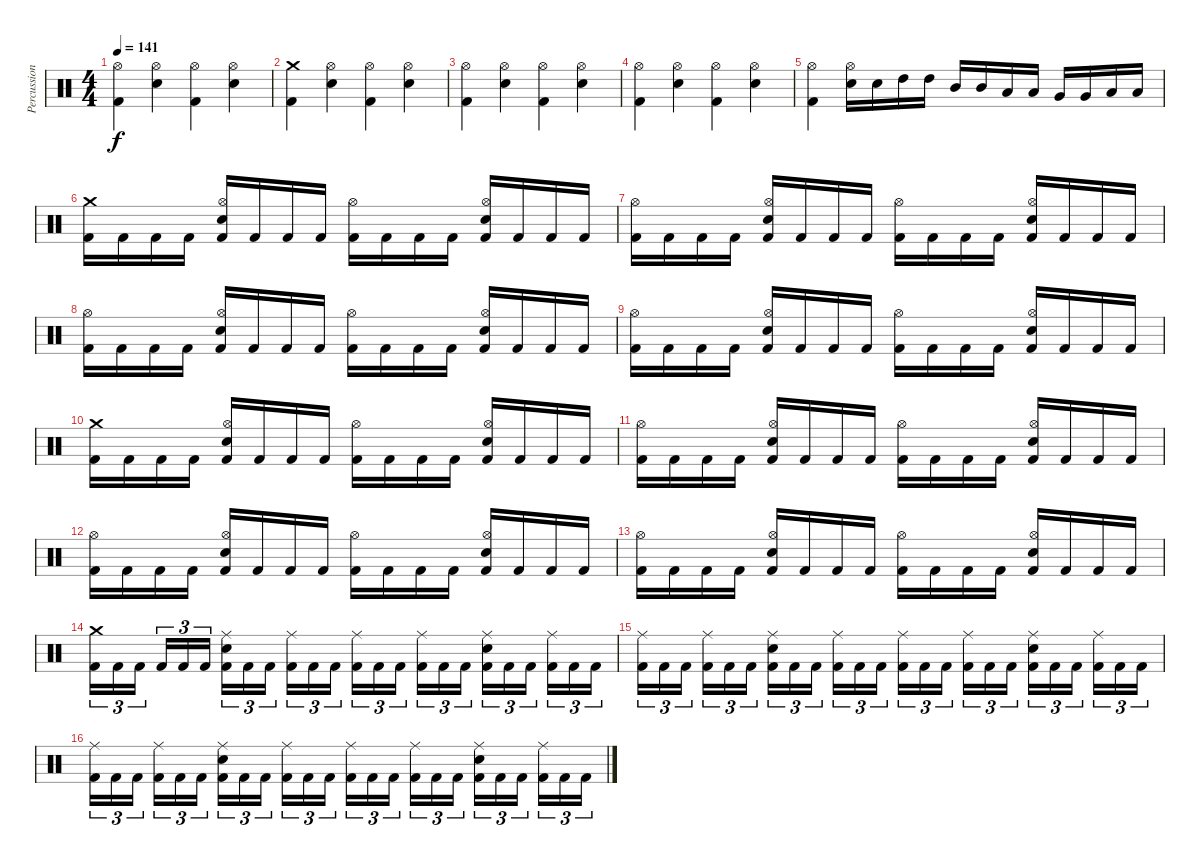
\track ("Percussion" "Percussion") {instrument percussion}
\staff {score}
\articulation defaults
\ts (4 4)
\tempo 141
\clef neutral
\ks c
("Kick (hit) 2" "Hi-Hat (open)").4{dy f} ("Electric Snare (hit)" "Hi-Hat (open)").4 ("Kick (hit) 2" "Hi-Hat (open)").4 ("Electric Snare (hit)" "Hi-Hat (open)").4 |
("Kick (hit) 2" "Crash medium (hit)").4 ("Electric Snare (hit)" "Hi-Hat (open)").4 ("Kick (hit) 2" "Hi-Hat (open)").4 ("Electric Snare (hit)" "Hi-Hat (open)").4 |
("Kick (hit) 2" "Hi-Hat (open)").4 ("Electric Snare (hit)" "Hi-Hat (open)").4 ("Kick (hit) 2" "Hi-Hat (open)").4 ("Electric Snare (hit)" "Hi-Hat (open)").4 |
("Kick (hit) 2" "Hi-Hat (open)").4 ("Electric Snare (hit)" "Hi-Hat (open)").4 ("Kick (hit) 2" "Hi-Hat (open)").4 ("Electric Snare (hit)" "Hi-Hat (open)").4 |
("Kick (hit) 2" "Hi-Hat (open)").4 ("Electric Snare (hit)" "Hi-Hat (open)").16 "Electric Snare (hit)".16 "High Tom (hit)".16 "High Tom (hit)".16 "Mid Tom (hit)".16 "Mid Tom (hit)".16 "Low Tom (hit)".16 "Low Tom (hit)".16 "Very Low Tom (hit)".16 "Very Low Tom (hit)".16 "Low Floor Tom (hit)".16 "Low Floor Tom (hit)".16 |
("Kick (hit) 2" "Crash medium (hit)").16 "Kick (hit) 2".16 "Kick (hit) 2".16 "Kick (hit) 2".16 ("Kick (hit) 2" "Electric Snare (hit)" "Hi-Hat (open)").16 "Kick (hit) 2".16 "Kick (hit) 2".16 "Kick (hit) 2".16 ("Kick (hit) 2" "Hi-Hat (open)").16 "Kick (hit) 2".16 "Kick (hit) 2".16 "Kick (hit) 2".16 ("Kick (hit) 2" "Electric Snare (hit)" "Hi-Hat (open)").16 "Kick (hit) 2".16 "Kick (hit) 2".16 "Kick (hit) 2".16 |
("Kick (hit) 2" "Hi-Hat (open)").16 "Kick (hit) 2".16 "Kick (hit) 2".16 "Kick (hit) 2".16 ("Kick (hit) 2" "Electric Snare (hit)" "Hi-Hat (open)").16 "Kick (hit) 2".16 "Kick (hit) 2".16 "Kick (hit) 2".16 ("Kick (hit) 2" "Hi-Hat (open)").16 "Kick (hit) 2".16 "Kick (hit) 2".16 "Kick (hit) 2".16 ("Kick (hit) 2" "Electric Snare (hit)" "Hi-Hat (open)").16 "Kick (hit) 2".16 "Kick (hit) 2".16 "Kick (hit) 2".16 |
("Kick (hit) 2" "Hi-Hat (open)").16 "Kick (hit) 2".16 "Kick (hit) 2".16 "Kick (hit) 2".16 ("Kick (hit) 2" "Electric Snare (hit)" "Hi-Hat (open)").16 "Kick (hit) 2".16 "Kick (hit) 2".16 "Kick (hit) 2".16 ("Kick (hit) 2" "Hi-Hat (open)").16 "Kick (hit) 2".16 "Kick (hit) 2".16 "Kick (hit) 2".16 ("Kick (hit) 2" "Electric Snare (hit)" "Hi-Hat (open)").16 "Kick (hit) 2".16 "Kick (hit) 2".16 "Kick (hit) 2".16 |
("Kick (hit) 2" "Hi-Hat (open)").16 "Kick (hit) 2".16 "Kick (hit) 2".16 "Kick (hit) 2".16 ("Kick (hit) 2" "Electric Snare (hit)" "Hi-Hat (open)").16 "Kick (hit) 2".16 "Kick (hit) 2".16 "Kick (hit) 2".16 ("Kick (hit) 2" "Hi-Hat (open)").16 "Kick (hit) 2".16 "Kick (hit) 2".16 "Kick (hit) 2".16 ("Kick (hit) 2" "Electric Snare (hit)" "Hi-Hat (open)").16 "Kick (hit) 2".16 "Kick (hit) 2".16 "Kick (hit) 2".16 |
("Kick (hit) 2" "Crash medium (hit)").16 "Kick (hit) 2".16 "Kick (hit) 2".16 "Kick (hit) 2".16 ("Kick (hit) 2" "Electric Snare (hit)" "Hi-Hat (open)").16 "Kick (hit) 2".16 "Kick (hit) 2".16 "Kick (hit) 2".16 ("Kick (hit) 2" "Hi-Hat (open)").16 "Kick (hit) 2".16 "Kick (hit) 2".16 "Kick (hit) 2".16 ("Kick (hit) 2" "Electric Snare (hit)" "Hi-Hat (open)").16 "Kick (hit) 2".16 "Kick (hit) 2".16 "Kick (hit) 2".16 |
("Kick (hit) 2" "Hi-Hat (open)").16 "Kick (hit) 2".16 "Kick (hit) 2".16 "Kick (hit) 2".16 ("Kick (hit) 2" "Electric Snare (hit)" "Hi-Hat (open)").16 "Kick (hit) 2".16 "Kick (hit) 2".16 "Kick (hit) 2".16 ("Kick (hit) 2" "Hi-Hat (open)").16 "Kick (hit) 2".16 "Kick (hit) 2".16 "Kick (hit) 2".16 ("Kick (hit) 2" "Electric Snare (hit)" "Hi-Hat (open)").16 "Kick (hit) 2".16 "Kick (hit) 2".16 "Kick (hit) 2".16 |
("Kick (hit) 2" "Hi-Hat (open)").16 "Kick (hit) 2".16 "Kick (hit) 2".16 "Kick (hit) 2".16 ("Kick (hit) 2" "Electric Snare (hit)" "Hi-Hat (open)").16 "Kick (hit) 2".16 "Kick (hit) 2".16 "Kick (hit) 2".16 ("Kick (hit) 2" "Hi-Hat (open)").16 "Kick (hit) 2".16 "Kick (hit) 2".16 "Kick (hit) 2".16 ("Kick (hit) 2" "Electric Snare (hit)" "Hi-Hat (open)").16 "Kick (hit) 2".16 "Kick (hit) 2".16 "Kick (hit) 2".16 |
("Kick (hit) 2" "Hi-Hat (open)").16 "Kick (hit) 2".16 "Kick (hit) 2".16 "Kick (hit) 2".16 ("Kick (hit) 2" "Electric Snare (hit)" "Hi-Hat (open)").16 "Kick (hit) 2".16 "Kick (hit) 2".16 "Kick (hit) 2".16 ("Kick (hit) 2" "Hi-Hat (open)").16 "Kick (hit) 2".16 "Kick (hit) 2".16 "Kick (hit) 2".16 ("Kick (hit) 2" "Electric Snare (hit)" "Hi-Hat (open)").16 "Kick (hit) 2".16 "Kick (hit) 2".16 "Kick (hit) 2".16 |
("Kick (hit) 2" "Crash medium (hit)").16{tu (3 2)} "Kick (hit) 2".16{tu (3 2)} "Kick (hit) 2".16{tu (3 2)} "Kick (hit) 2".16{tu (3 2)} "Kick (hit) 2".16{tu (3 2)} "Kick (hit) 2".16{tu (3 2)} ("Kick (hit) 2" "Electric Snare (hit)" "Ride (middle)").16{tu (3 2)} "Kick (hit) 2".16{tu (3 2)} "Kick (hit) 2".16{tu (3 2)} ("Kick (hit) 2" "Ride (middle)").16{tu (3 2)} "Kick (hit) 2".16{tu (3 2)} "Kick (hit) 2".16{tu (3 2)} ("Kick (hit) 2" "Ride (middle)").16{tu (3 2)} "Kick (hit) 2".16{tu (3 2)} "Kick (hit) 2".16{tu (3 2)} ("Kick (hit) 2" "Ride (middle)").16{tu (3 2)} "Kick (hit) 2".16{tu (3 2)} "Kick (hit) 2".16{tu (3 2)} ("Kick (hit) 2" "Electric Snare (hit)" "Ride (middle)").16{tu (3 2)} "Kick (hit) 2".16{tu (3 2)} "Kick (hit) 2".16{tu (3 2)} ("Kick (hit) 2" "Ride (middle)").16{tu (3 2)} "Kick (hit) 2".16{tu (3 2)} "Kick (hit) 2".16{tu (3 2)} |
("Kick (hit) 2" "Ride (middle)").16{tu (3 2)} "Kick (hit) 2".16{tu (3 2)} "Kick (hit) 2".16{tu (3 2)} ("Kick (hit) 2" "Ride (middle)").16{tu (3 2)} "Kick (hit) 2".16{tu (3 2)} "Kick (hit) 2".16{tu (3 2)} ("Kick (hit) 2" "Electric Snare (hit)" "Ride (middle)").16{tu (3 2)} "Kick (hit) 2".16{tu (3 2)} "Kick (hit) 2".16{tu (3 2)} ("Kick (hit) 2" "Ride (middle)").16{tu (3 2)} "Kick (hit) 2".16{tu (3 2)} "Kick (hit) 2".16{tu (3 2)} ("Kick (hit) 2" "Ride (middle)").16{tu (3 2)} "Kick (hit) 2".16{tu (3 2)} "Kick (hit) 2".16{tu (3 2)} ("Kick (hit) 2" "Ride (middle)").16{tu (3 2)} "Kick (hit) 2".16{tu (3 2)} "Kick (hit) 2".16{tu (3 2)} ("Kick (hit) 2" "Electric Snare (hit)" "Ride (middle)").16{tu (3 2)} "Kick (hit) 2".16{tu (3 2)} "Kick (hit) 2".16{tu (3 2)} ("Kick (hit) 2" "Ride (middle)").16{tu (3 2)} "Kick (hit) 2".16{tu (3 2)} "Kick (hit) 2".16{tu (3 2)} |
("Kick (hit) 2" "Ride (middle)").16{tu (3 2)} "Kick (hit) 2".16{tu (3 2)} "Kick (hit) 2".16{tu (3 2)} ("Kick (hit) 2" "Ride (middle)").16{tu (3 2)} "Kick (hit) 2".16{tu (3 2)} "Kick (hit) 2".16{tu (3 2)} ("Kick (hit) 2" "Electric Snare (hit)" "Ride (middle)").16{tu (3 2)} "Kick (hit) 2".16{tu (3 2)} "Kick (hit) 2".16{tu (3 2)} ("Kick (hit) 2" "Ride (middle)").16{tu (3 2)} "Kick (hit) 2".16{tu (3 2)} "Kick (hit) 2".16{tu (3 2)} ("Kick (hit) 2" "Ride (middle)").16{tu (3 2)} "Kick (hit) 2".16{tu (3 2)} "Kick (hit) 2".16{tu (3 2)} ("Kick (hit) 2" "Ride (middle)").16{tu (3 2)} "Kick (hit) 2".16{tu (3 2)} "Kick (hit) 2".16{tu (3 2)} ("Kick (hit) 2" "Electric Snare (hit)" "Ride (middle)").16{tu (3 2)} "Kick (hit) 2".16{tu (3 2)} "Kick (hit) 2".16{tu (3 2)} ("Kick (hit) 2" "Ride (middle)").16{tu (3 2)} "Kick (hit) 2".16{tu (3 2)} "Kick (hit) 2".16{tu (3 2)}
